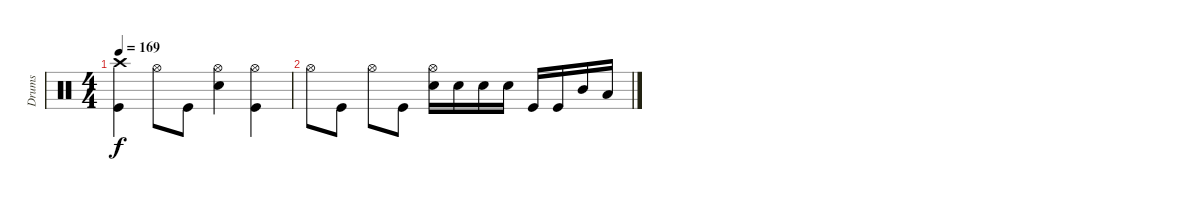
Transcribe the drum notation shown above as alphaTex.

\track ("Drums" "Drums") {instrument percussion}
\staff
\articulation defaults
\ts (4 4)
\tempo 169
\clef neutral
\ks c
("Crash high (hit)" "Kick (hit)").4{dy f} "Hi-Hat (open)".8 "Kick (hit)".8 ("Hi-Hat (open)" "Electric Snare (hit)").4 ("Hi-Hat (open)" "Kick (hit)").4 |
"Hi-Hat (open)".8 "Kick (hit)".8 "Hi-Hat (open)".8 "Kick (hit)".8 ("Hi-Hat (open)" "Electric Snare (hit)").16 "Electric Snare (hit)".16 "Electric Snare (hit)".16 "Electric Snare (hit)".16 "Kick (hit)".16 "Kick (hit)".16 "Mid Tom (hit)".16 "Low Tom (hit)".16
